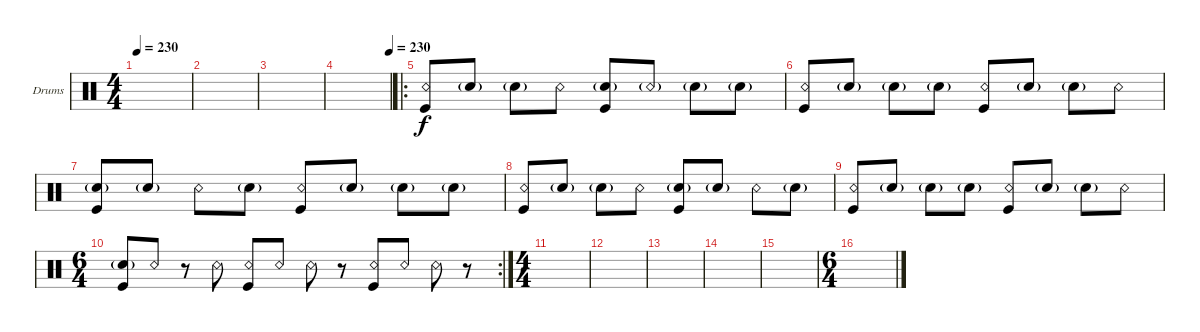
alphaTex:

\bracketExtendMode groupsimilarinstruments
\firstSystemTrackNameOrientation horizontal
\otherSystemsTrackNameOrientation horizontal
\track ("Drumkit" "Drums") {mute instrument percussion}
\staff {score}
\articulation defaults
\ts (4 4)
\tempo 230
\clef neutral
\ks c
|
|
|
\tempo (230 1)
|
\ro
("Snare (rim shot)" "Kick (hit)").8 "Snare (hit) 2"{g}.8 "Snare (hit) 2"{g}.8 "Snare (rim shot)".8 ("Snare (hit) 2"{g} "Kick (hit)").8 "Snare (rim shot)"{g}.8 "Snare (hit) 2"{g}.8 "Snare (hit) 2"{g}.8 |
("Kick (hit)" "Snare (rim shot)").8 "Snare (hit) 2"{g}.8 "Snare (hit) 2"{g}.8 "Snare (hit) 2"{g}.8 ("Snare (rim shot)" "Kick (hit)").8 "Snare (hit) 2"{g}.8 "Snare (hit) 2"{g}.8 "Snare (rim shot)".8 |
("Snare (hit) 2"{g} "Kick (hit)").8 "Snare (hit) 2"{g}.8 "Snare (rim shot)".8 "Snare (hit) 2"{g}.8 ("Snare (rim shot)" "Kick (hit)").8 "Snare (hit) 2"{g}.8 "Snare (hit) 2"{g}.8 "Snare (hit) 2"{g}.8 |
("Snare (rim shot)" "Kick (hit)").8 "Snare (hit) 2"{g}.8 "Snare (hit) 2"{g}.8 "Snare (rim shot)".8 ("Snare (hit) 2"{g} "Kick (hit)").8 "Snare (hit) 2"{g}.8 "Snare (rim shot)".8 "Snare (hit) 2"{g}.8 |
("Snare (rim shot)" "Kick (hit)").8 "Snare (hit) 2"{g}.8 "Snare (hit) 2"{g}.8 "Snare (hit) 2"{g}.8 ("Snare (rim shot)" "Kick (hit)").8 "Snare (hit) 2"{g}.8 "Snare (hit) 2"{g}.8 "Snare (rim shot)".8 |
\rc 2
\ts (6 4)
("Snare (hit) 2"{g} "Kick (hit)").8 "Snare (rim shot)".8 r.8 "Snare (rim shot)".8 ("Snare (rim shot)" "Kick (hit)").8 "Snare (rim shot)".8 "Snare (rim shot)".8 r.8 ("Snare (rim shot)" "Kick (hit)").8 "Snare (rim shot)".8 "Snare (rim shot)".8 r.8 |
\ts (4 4)
|
|
|
|
|
\ts (6 4)
